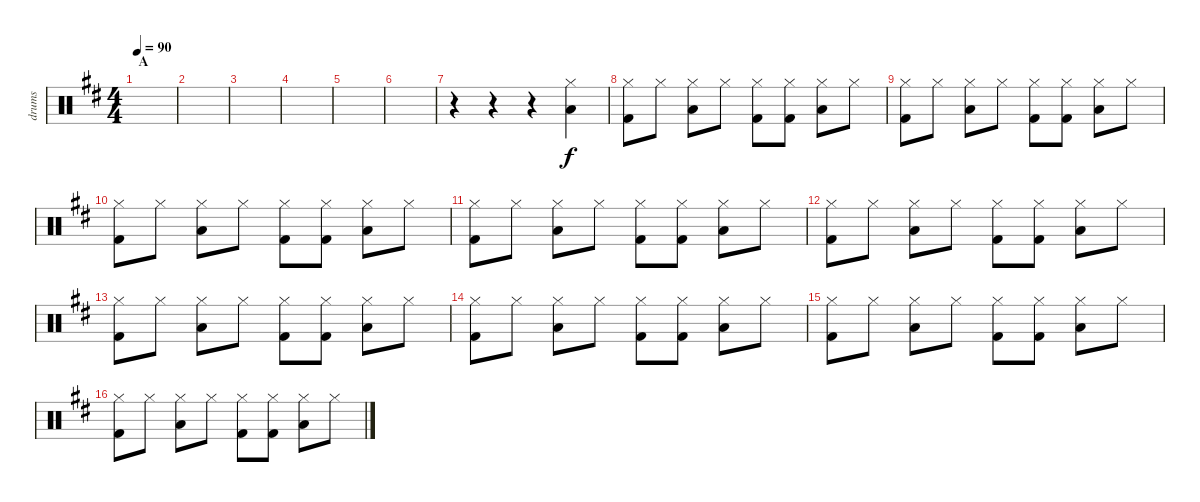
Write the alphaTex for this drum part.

\track ("drums" "drums") {instrument percussion}
\staff {score}
\articulation defaults
\ts (4 4)
\section ("" "A")
\tempo 90
\clef neutral
\ks d
|
|
|
|
|
|
r.4 r.4 r.4 ("Low Tom (hit)" "Hi-Hat (closed)").4 |
("Hi-Hat (closed)" "Kick (hit) 2").8 "Hi-Hat (closed)".8 ("Hi-Hat (closed)" "Low Tom (hit)").8 "Hi-Hat (closed)".8 ("Hi-Hat (closed)" "Kick (hit) 2").8 ("Hi-Hat (closed)" "Kick (hit) 2").8 ("Hi-Hat (closed)" "Low Tom (hit)").8 "Hi-Hat (closed)".8 |
("Hi-Hat (closed)" "Kick (hit) 2").8 "Hi-Hat (closed)".8 ("Hi-Hat (closed)" "Low Tom (hit)").8 "Hi-Hat (closed)".8 ("Hi-Hat (closed)" "Kick (hit) 2").8 ("Hi-Hat (closed)" "Kick (hit) 2").8 ("Hi-Hat (closed)" "Low Tom (hit)").8 "Hi-Hat (closed)".8 |
("Hi-Hat (closed)" "Kick (hit) 2").8 "Hi-Hat (closed)".8 ("Hi-Hat (closed)" "Low Tom (hit)").8 "Hi-Hat (closed)".8 ("Hi-Hat (closed)" "Kick (hit) 2").8 ("Hi-Hat (closed)" "Kick (hit) 2").8 ("Hi-Hat (closed)" "Low Tom (hit)").8 "Hi-Hat (closed)".8 |
("Hi-Hat (closed)" "Kick (hit) 2").8 "Hi-Hat (closed)".8 ("Hi-Hat (closed)" "Low Tom (hit)").8 "Hi-Hat (closed)".8 ("Hi-Hat (closed)" "Kick (hit) 2").8 ("Hi-Hat (closed)" "Kick (hit) 2").8 ("Hi-Hat (closed)" "Low Tom (hit)").8 "Hi-Hat (closed)".8 |
("Hi-Hat (closed)" "Kick (hit) 2").8 "Hi-Hat (closed)".8 ("Hi-Hat (closed)" "Low Tom (hit)").8 "Hi-Hat (closed)".8 ("Hi-Hat (closed)" "Kick (hit) 2").8 ("Hi-Hat (closed)" "Kick (hit) 2").8 ("Hi-Hat (closed)" "Low Tom (hit)").8 "Hi-Hat (closed)".8 |
("Hi-Hat (closed)" "Kick (hit) 2").8 "Hi-Hat (closed)".8 ("Hi-Hat (closed)" "Low Tom (hit)").8 "Hi-Hat (closed)".8 ("Hi-Hat (closed)" "Kick (hit) 2").8 ("Hi-Hat (closed)" "Kick (hit) 2").8 ("Hi-Hat (closed)" "Low Tom (hit)").8 "Hi-Hat (closed)".8 |
("Hi-Hat (closed)" "Kick (hit) 2").8 "Hi-Hat (closed)".8 ("Hi-Hat (closed)" "Low Tom (hit)").8 "Hi-Hat (closed)".8 ("Hi-Hat (closed)" "Kick (hit) 2").8 ("Hi-Hat (closed)" "Kick (hit) 2").8 ("Hi-Hat (closed)" "Low Tom (hit)").8 "Hi-Hat (closed)".8 |
("Hi-Hat (closed)" "Kick (hit) 2").8 "Hi-Hat (closed)".8 ("Hi-Hat (closed)" "Low Tom (hit)").8 "Hi-Hat (closed)".8 ("Hi-Hat (closed)" "Kick (hit) 2").8 ("Hi-Hat (closed)" "Kick (hit) 2").8 ("Hi-Hat (closed)" "Low Tom (hit)").8 "Hi-Hat (closed)".8 |
("Hi-Hat (closed)" "Kick (hit) 2").8 "Hi-Hat (closed)".8 ("Hi-Hat (closed)" "Low Tom (hit)").8 "Hi-Hat (closed)".8 ("Hi-Hat (closed)" "Kick (hit) 2").8 ("Hi-Hat (closed)" "Kick (hit) 2").8 ("Hi-Hat (closed)" "Low Tom (hit)").8 "Hi-Hat (closed)".8
